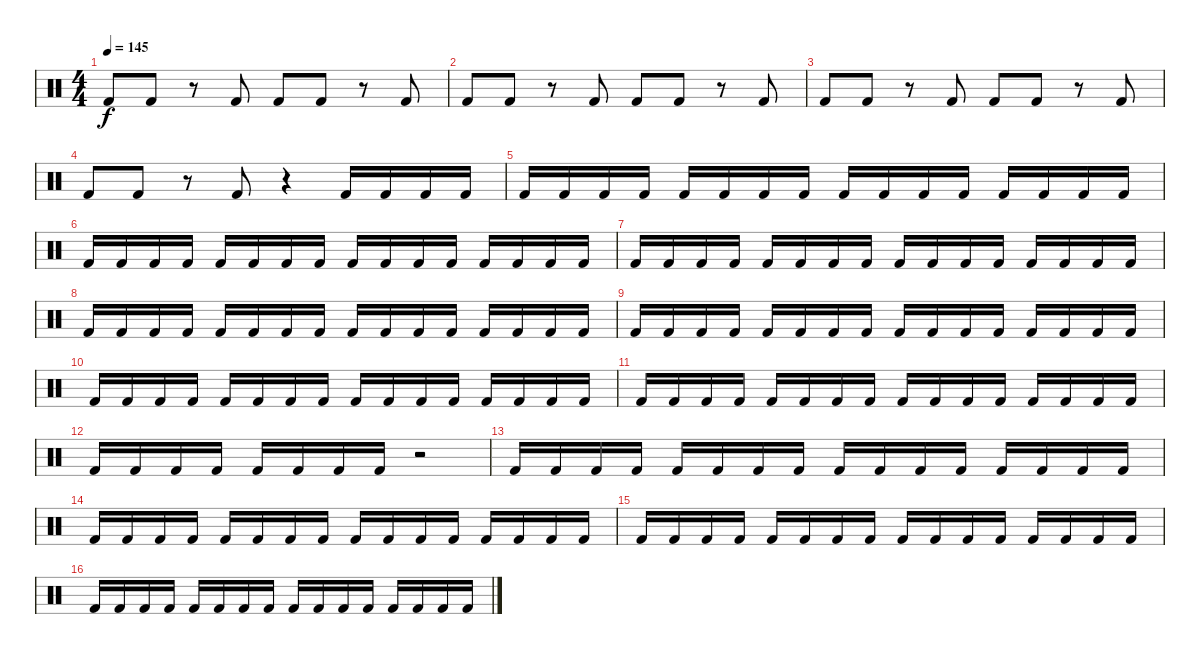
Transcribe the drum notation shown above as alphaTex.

\track "" {instrument percussion}
\staff {score}
\articulation defaults
\ts (4 4)
\tempo 145
\clef neutral
\ks c "Kick (hit) 2".8{dy f} "Kick (hit) 2".8
r.8 "Kick (hit) 2".8 "Kick (hit) 2".8 "Kick (hit) 2".8 r.8 "Kick (hit) 2".8 |
"Kick (hit) 2".8 "Kick (hit) 2".8 r.8 "Kick (hit) 2".8 "Kick (hit) 2".8 "Kick (hit) 2".8 r.8 "Kick (hit) 2".8 |
"Kick (hit) 2".8 "Kick (hit) 2".8 r.8 "Kick (hit) 2".8 "Kick (hit) 2".8 "Kick (hit) 2".8 r.8 "Kick (hit) 2".8 |
"Kick (hit) 2".8 "Kick (hit) 2".8 r.8 "Kick (hit) 2".8 r.4 "Kick (hit) 2".16 "Kick (hit) 2".16 "Kick (hit) 2".16 "Kick (hit) 2".16 |
"Kick (hit) 2".16 "Kick (hit) 2".16 "Kick (hit) 2".16 "Kick (hit) 2".16 "Kick (hit) 2".16 "Kick (hit) 2".16 "Kick (hit) 2".16 "Kick (hit) 2".16 "Kick (hit) 2".16 "Kick (hit) 2".16 "Kick (hit) 2".16 "Kick (hit) 2".16 "Kick (hit) 2".16 "Kick (hit) 2".16 "Kick (hit) 2".16 "Kick (hit) 2".16 |
"Kick (hit) 2".16 "Kick (hit) 2".16 "Kick (hit) 2".16 "Kick (hit) 2".16 "Kick (hit) 2".16 "Kick (hit) 2".16 "Kick (hit) 2".16 "Kick (hit) 2".16 "Kick (hit) 2".16 "Kick (hit) 2".16 "Kick (hit) 2".16 "Kick (hit) 2".16 "Kick (hit) 2".16 "Kick (hit) 2".16 "Kick (hit) 2".16 "Kick (hit) 2".16 |
"Kick (hit) 2".16 "Kick (hit) 2".16 "Kick (hit) 2".16 "Kick (hit) 2".16 "Kick (hit) 2".16 "Kick (hit) 2".16 "Kick (hit) 2".16 "Kick (hit) 2".16 "Kick (hit) 2".16 "Kick (hit) 2".16 "Kick (hit) 2".16 "Kick (hit) 2".16 "Kick (hit) 2".16 "Kick (hit) 2".16 "Kick (hit) 2".16 "Kick (hit) 2".16 |
"Kick (hit) 2".16 "Kick (hit) 2".16 "Kick (hit) 2".16 "Kick (hit) 2".16 "Kick (hit) 2".16 "Kick (hit) 2".16 "Kick (hit) 2".16 "Kick (hit) 2".16 "Kick (hit) 2".16 "Kick (hit) 2".16 "Kick (hit) 2".16 "Kick (hit) 2".16 "Kick (hit) 2".16 "Kick (hit) 2".16 "Kick (hit) 2".16 "Kick (hit) 2".16 |
"Kick (hit) 2".16 "Kick (hit) 2".16 "Kick (hit) 2".16 "Kick (hit) 2".16 "Kick (hit) 2".16 "Kick (hit) 2".16 "Kick (hit) 2".16 "Kick (hit) 2".16 "Kick (hit) 2".16 "Kick (hit) 2".16 "Kick (hit) 2".16 "Kick (hit) 2".16 "Kick (hit) 2".16 "Kick (hit) 2".16 "Kick (hit) 2".16 "Kick (hit) 2".16 |
"Kick (hit) 2".16 "Kick (hit) 2".16 "Kick (hit) 2".16 "Kick (hit) 2".16 "Kick (hit) 2".16 "Kick (hit) 2".16 "Kick (hit) 2".16 "Kick (hit) 2".16 "Kick (hit) 2".16 "Kick (hit) 2".16 "Kick (hit) 2".16 "Kick (hit) 2".16 "Kick (hit) 2".16 "Kick (hit) 2".16 "Kick (hit) 2".16 "Kick (hit) 2".16 |
"Kick (hit) 2".16 "Kick (hit) 2".16 "Kick (hit) 2".16 "Kick (hit) 2".16 "Kick (hit) 2".16 "Kick (hit) 2".16 "Kick (hit) 2".16 "Kick (hit) 2".16 "Kick (hit) 2".16 "Kick (hit) 2".16 "Kick (hit) 2".16 "Kick (hit) 2".16 "Kick (hit) 2".16 "Kick (hit) 2".16 "Kick (hit) 2".16 "Kick (hit) 2".16 |
"Kick (hit) 2".16 "Kick (hit) 2".16 "Kick (hit) 2".16 "Kick (hit) 2".16 "Kick (hit) 2".16 "Kick (hit) 2".16 "Kick (hit) 2".16 "Kick (hit) 2".16 r.2 |
"Kick (hit) 2".16 "Kick (hit) 2".16 "Kick (hit) 2".16 "Kick (hit) 2".16 "Kick (hit) 2".16 "Kick (hit) 2".16 "Kick (hit) 2".16 "Kick (hit) 2".16 "Kick (hit) 2".16 "Kick (hit) 2".16 "Kick (hit) 2".16 "Kick (hit) 2".16 "Kick (hit) 2".16 "Kick (hit) 2".16 "Kick (hit) 2".16 "Kick (hit) 2".16 |
"Kick (hit) 2".16 "Kick (hit) 2".16 "Kick (hit) 2".16 "Kick (hit) 2".16 "Kick (hit) 2".16 "Kick (hit) 2".16 "Kick (hit) 2".16 "Kick (hit) 2".16 "Kick (hit) 2".16 "Kick (hit) 2".16 "Kick (hit) 2".16 "Kick (hit) 2".16 "Kick (hit) 2".16 "Kick (hit) 2".16 "Kick (hit) 2".16 "Kick (hit) 2".16 |
"Kick (hit) 2".16 "Kick (hit) 2".16 "Kick (hit) 2".16 "Kick (hit) 2".16 "Kick (hit) 2".16 "Kick (hit) 2".16 "Kick (hit) 2".16 "Kick (hit) 2".16 "Kick (hit) 2".16 "Kick (hit) 2".16 "Kick (hit) 2".16 "Kick (hit) 2".16 "Kick (hit) 2".16 "Kick (hit) 2".16 "Kick (hit) 2".16 "Kick (hit) 2".16 |
"Kick (hit) 2".16 "Kick (hit) 2".16 "Kick (hit) 2".16 "Kick (hit) 2".16 "Kick (hit) 2".16 "Kick (hit) 2".16 "Kick (hit) 2".16 "Kick (hit) 2".16 "Kick (hit) 2".16 "Kick (hit) 2".16 "Kick (hit) 2".16 "Kick (hit) 2".16 "Kick (hit) 2".16 "Kick (hit) 2".16 "Kick (hit) 2".16 "Kick (hit) 2".16
